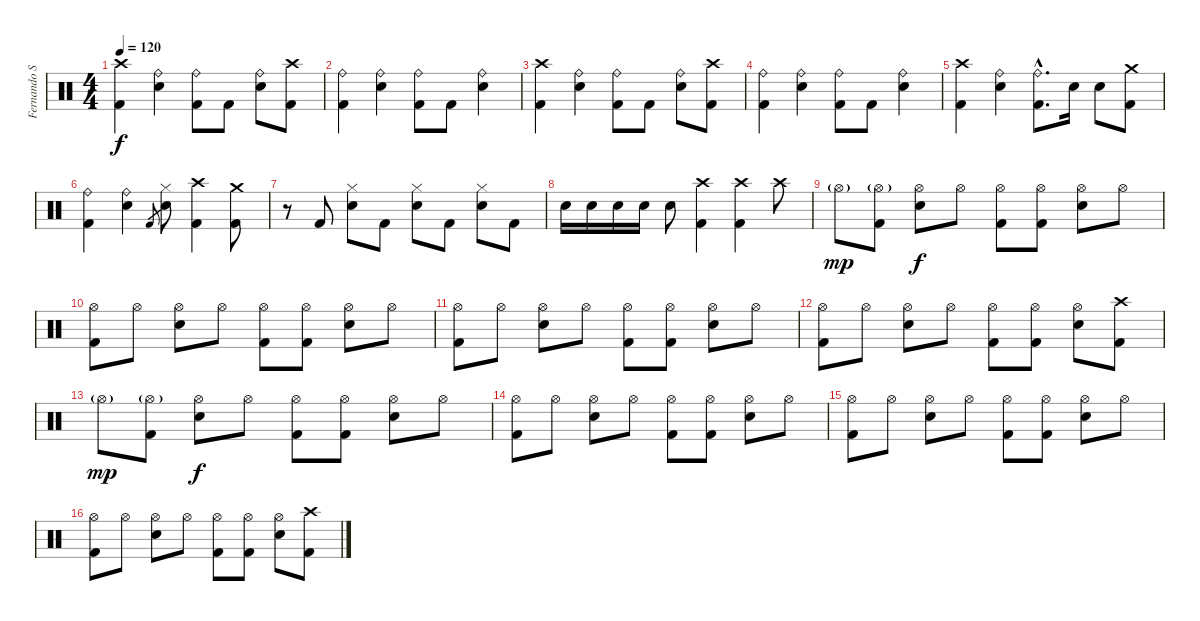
\track ("Fernando Scarcella" "Fernando S") {instrument percussion}
\staff {score}
\articulation defaults
\ts (4 4)
\tempo 120
\clef neutral
\ks c
("Crash high (hit)" "Kick (hit) 2").4{dy f} ("Ride (bell)" "Snare (hit) 2").4 ("Ride (bell)" "Kick (hit) 2").8 "Kick (hit) 2".8 ("Ride (bell)" "Snare (hit) 2").8 ("Crash high (hit)" "Kick (hit) 2").8 |
("Ride (bell)" "Kick (hit) 2").4 ("Ride (bell)" "Snare (hit) 2").4 ("Ride (bell)" "Kick (hit) 2").8 "Kick (hit) 2".8 ("Ride (bell)" "Snare (hit) 2").4 |
("Crash high (hit)" "Kick (hit) 2").4 ("Ride (bell)" "Snare (hit) 2").4 ("Ride (bell)" "Kick (hit) 2").8 "Kick (hit) 2".8 ("Ride (bell)" "Snare (hit) 2").8 ("Crash high (hit)" "Kick (hit) 2").8 |
("Ride (bell)" "Kick (hit) 2").4 ("Ride (bell)" "Snare (hit) 2").4 ("Ride (bell)" "Kick (hit) 2").8 "Kick (hit) 2".8 ("Ride (bell)" "Snare (hit) 2").4 |
("Crash high (hit)" "Kick (hit) 2").4 ("Ride (bell)" "Snare (hit) 2").4 ("Ride (bell)"{hac} "Kick (hit) 2"{hac}).8{d} "Snare (hit) 2".16 "Snare (hit) 2".8 ("Crash medium (hit)" "Kick (hit) 2").8 |
("Ride (bell)" "Kick (hit) 2").4 ("Ride (bell)" "Snare (hit) 2").4 "Kick (hit) 2".8{gr} ("Hi-Hat (closed)" "Snare (hit) 2").8 ("Crash high (hit)" "Kick (hit) 2").4 ("Crash medium (hit)" "Kick (hit) 2").8 |
r.8 "Kick (hit) 2".8 ("Snare (hit) 2" "Hi-Hat (closed)").8 "Kick (hit) 2".8 ("Snare (hit) 2" "Hi-Hat (closed)").8 "Kick (hit) 2".8 ("Snare (hit) 2" "Hi-Hat (closed)").8 "Kick (hit) 2".8 |
"Snare (hit) 2".16 "Snare (hit) 2".16 "Snare (hit) 2".16 "Snare (hit) 2".16 "Snare (hit) 2".8 ("Crash high (hit)" "Kick (hit) 2").4 ("Crash high (hit)" "Kick (hit) 2").4 "Crash high (hit)".8 |
"Hi-Hat (open)"{g}.8{dy mp} ("Hi-Hat (open)"{g} "Kick (hit) 2").8 ("Hi-Hat (open)" "Snare (hit) 2").8{dy f} "Hi-Hat (open)".8 ("Hi-Hat (open)" "Kick (hit) 2").8 ("Hi-Hat (open)" "Kick (hit) 2").8 ("Hi-Hat (open)" "Snare (hit) 2").8 "Hi-Hat (open)".8 |
("Hi-Hat (open)" "Kick (hit) 2").8 "Hi-Hat (open)".8 ("Hi-Hat (open)" "Snare (hit) 2").8 "Hi-Hat (open)".8 ("Hi-Hat (open)" "Kick (hit) 2").8 ("Hi-Hat (open)" "Kick (hit) 2").8 ("Hi-Hat (open)" "Snare (hit) 2").8 "Hi-Hat (open)".8 |
("Hi-Hat (open)" "Kick (hit) 2").8 "Hi-Hat (open)".8 ("Hi-Hat (open)" "Snare (hit) 2").8 "Hi-Hat (open)".8 ("Hi-Hat (open)" "Kick (hit) 2").8 ("Hi-Hat (open)" "Kick (hit) 2").8 ("Hi-Hat (open)" "Snare (hit) 2").8 "Hi-Hat (open)".8 |
("Hi-Hat (open)" "Kick (hit) 2").8 "Hi-Hat (open)".8 ("Hi-Hat (open)" "Snare (hit) 2").8 "Hi-Hat (open)".8 ("Hi-Hat (open)" "Kick (hit) 2").8 ("Hi-Hat (open)" "Kick (hit) 2").8 ("Hi-Hat (open)" "Snare (hit) 2").8 ("Crash high (hit)" "Kick (hit) 2").8 |
"Hi-Hat (open)"{g}.8{dy mp} ("Hi-Hat (open)"{g} "Kick (hit) 2").8 ("Hi-Hat (open)" "Snare (hit) 2").8{dy f} "Hi-Hat (open)".8 ("Hi-Hat (open)" "Kick (hit) 2").8 ("Hi-Hat (open)" "Kick (hit) 2").8 ("Hi-Hat (open)" "Snare (hit) 2").8 "Hi-Hat (open)".8 |
("Hi-Hat (open)" "Kick (hit) 2").8 "Hi-Hat (open)".8 ("Hi-Hat (open)" "Snare (hit) 2").8 "Hi-Hat (open)".8 ("Hi-Hat (open)" "Kick (hit) 2").8 ("Hi-Hat (open)" "Kick (hit) 2").8 ("Hi-Hat (open)" "Snare (hit) 2").8 "Hi-Hat (open)".8 |
("Hi-Hat (open)" "Kick (hit) 2").8 "Hi-Hat (open)".8 ("Hi-Hat (open)" "Snare (hit) 2").8 "Hi-Hat (open)".8 ("Hi-Hat (open)" "Kick (hit) 2").8 ("Hi-Hat (open)" "Kick (hit) 2").8 ("Hi-Hat (open)" "Snare (hit) 2").8 "Hi-Hat (open)".8 |
("Hi-Hat (open)" "Kick (hit) 2").8 "Hi-Hat (open)".8 ("Hi-Hat (open)" "Snare (hit) 2").8 "Hi-Hat (open)".8 ("Hi-Hat (open)" "Kick (hit) 2").8 ("Hi-Hat (open)" "Kick (hit) 2").8 ("Hi-Hat (open)" "Snare (hit) 2").8 ("Crash high (hit)" "Kick (hit) 2").8
